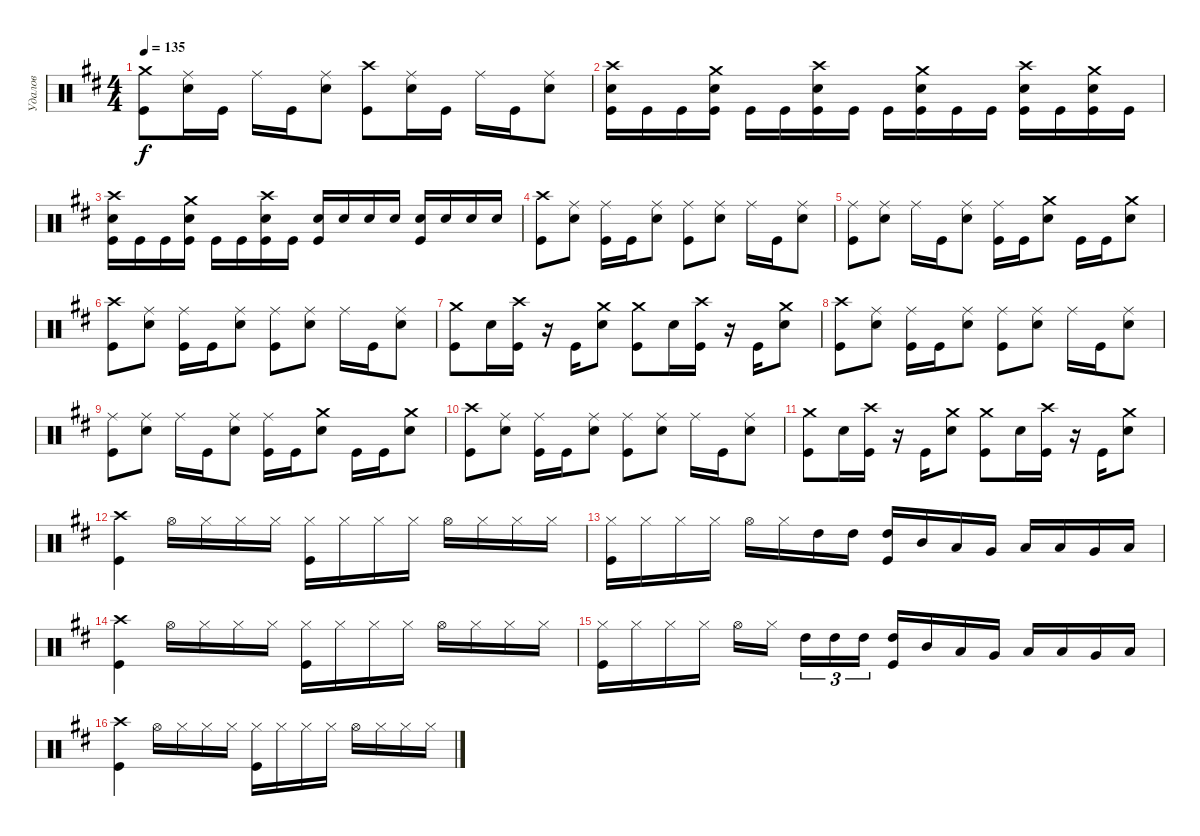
\track ("Удалов" "Удалов") {instrument percussion}
\staff {score}
\articulation defaults
\ts (4 4)
\tempo 135
\clef neutral
\ks d
("Crash medium (hit)" "Kick (hit)").8{dy f} ("Ride (middle)" "Electric Snare (hit)").16 "Kick (hit)".16 "Ride (middle)".16 "Kick (hit)".16 ("Electric Snare (hit)" "Ride (middle)").8 ("Crash high (hit)" "Kick (hit)").8 ("Ride (middle)" "Electric Snare (hit)").16 "Kick (hit)".16 "Ride (middle)".16 "Kick (hit)".16 ("Electric Snare (hit)" "Ride (middle)").8 |
("Kick (hit)" "Electric Snare (hit)" "Crash high (hit)").16 "Kick (hit)".16 "Kick (hit)".16 ("Kick (hit)" "Electric Snare (hit)" "Crash medium (hit)").16 "Kick (hit)".16 "Kick (hit)".16 ("Kick (hit)" "Electric Snare (hit)" "Crash high (hit)").16 "Kick (hit)".16 "Kick (hit)".16 ("Kick (hit)" "Electric Snare (hit)" "Crash medium (hit)").16 "Kick (hit)".16 "Kick (hit)".16 ("Kick (hit)" "Electric Snare (hit)" "Crash high (hit)").16 "Kick (hit)".16 ("Kick (hit)" "Electric Snare (hit)" "Crash medium (hit)").16 "Kick (hit)".16 |
("Kick (hit)" "Electric Snare (hit)" "Crash high (hit)").16 "Kick (hit)".16 "Kick (hit)".16 ("Kick (hit)" "Electric Snare (hit)" "Crash medium (hit)").16 "Kick (hit)".16 "Kick (hit)".16 ("Kick (hit)" "Crash high (hit)" "Electric Snare (hit)").16 "Kick (hit)".16 ("Kick (hit)" "Electric Snare (hit)").16 "Electric Snare (hit)".16 "Electric Snare (hit)".16 "Electric Snare (hit)".16 ("Kick (hit)" "Electric Snare (hit)").16 "Electric Snare (hit)".16 "Electric Snare (hit)".16 "Electric Snare (hit)".16 |
("Kick (hit)" "Crash high (hit)").8 ("Electric Snare (hit)" "Ride (middle)").8 ("Kick (hit)" "Ride (middle)").16 "Kick (hit)".16 ("Electric Snare (hit)" "Ride (middle)").8 ("Kick (hit)" "Ride (middle)").8 ("Electric Snare (hit)" "Ride (middle)").8 "Ride (middle)".16 "Kick (hit)".16 ("Electric Snare (hit)" "Ride (middle)").8 |
("Kick (hit)" "Ride (middle)").8 ("Electric Snare (hit)" "Ride (middle)").8 "Ride (middle)".16 "Kick (hit)".16 ("Electric Snare (hit)" "Ride (middle)").8 ("Kick (hit)" "Ride (middle)").16 "Kick (hit)".16 ("Electric Snare (hit)" "Crash medium (hit)").8 "Kick (hit)".16 "Kick (hit)".16 ("Electric Snare (hit)" "Crash medium (hit)").8 |
("Kick (hit)" "Crash high (hit)").8 ("Electric Snare (hit)" "Ride (middle)").8 ("Kick (hit)" "Ride (middle)").16 "Kick (hit)".16 ("Electric Snare (hit)" "Ride (middle)").8 ("Kick (hit)" "Ride (middle)").8 ("Electric Snare (hit)" "Ride (middle)").8 "Ride (middle)".16 "Kick (hit)".16 ("Electric Snare (hit)" "Ride (middle)").8 |
("Kick (hit)" "Crash medium (hit)").8 "Electric Snare (hit)".16 ("Kick (hit)" "Crash high (hit)").16 r.16 "Kick (hit)".16 ("Electric Snare (hit)" "Crash medium (hit)").8 ("Kick (hit)" "Crash medium (hit)").8 "Electric Snare (hit)".16 ("Kick (hit)" "Crash high (hit)").16 r.16 "Kick (hit)".16 ("Electric Snare (hit)" "Crash medium (hit)").8 |
("Kick (hit)" "Crash high (hit)").8 ("Electric Snare (hit)" "Ride (middle)").8 ("Kick (hit)" "Ride (middle)").16 "Kick (hit)".16 ("Electric Snare (hit)" "Ride (middle)").8 ("Kick (hit)" "Ride (middle)").8 ("Electric Snare (hit)" "Ride (middle)").8 "Ride (middle)".16 "Kick (hit)".16 ("Electric Snare (hit)" "Ride (middle)").8 |
("Kick (hit)" "Ride (middle)").8 ("Electric Snare (hit)" "Ride (middle)").8 "Ride (middle)".16 "Kick (hit)".16 ("Electric Snare (hit)" "Ride (middle)").8 ("Kick (hit)" "Ride (middle)").16 "Kick (hit)".16 ("Electric Snare (hit)" "Crash medium (hit)").8 "Kick (hit)".16 "Kick (hit)".16 ("Electric Snare (hit)" "Crash medium (hit)").8 |
("Kick (hit)" "Crash high (hit)").8 ("Electric Snare (hit)" "Ride (middle)").8 ("Kick (hit)" "Ride (middle)").16 "Kick (hit)".16 ("Electric Snare (hit)" "Ride (middle)").8 ("Kick (hit)" "Ride (middle)").8 ("Electric Snare (hit)" "Ride (middle)").8 "Ride (middle)".16 "Kick (hit)".16 ("Electric Snare (hit)" "Ride (middle)").8 |
("Kick (hit)" "Crash medium (hit)").8 "Electric Snare (hit)".16 ("Kick (hit)" "Crash high (hit)").16 r.16 "Kick (hit)".16 ("Electric Snare (hit)" "Crash medium (hit)").8 ("Kick (hit)" "Crash medium (hit)").8 "Electric Snare (hit)".16 ("Kick (hit)" "Crash high (hit)").16 r.16 "Kick (hit)".16 ("Electric Snare (hit)" "Crash medium (hit)").8 |
("Kick (hit)" "Crash high (hit)").4 "Hi-Hat (open)".16 "Hi-Hat (closed)".16 "Hi-Hat (closed)".16 "Hi-Hat (closed)".16 ("Kick (hit)" "Hi-Hat (closed)").16 "Hi-Hat (closed)".16 "Hi-Hat (closed)".16 "Hi-Hat (closed)".16 "Hi-Hat (open)".16 "Hi-Hat (closed)".16 "Hi-Hat (closed)".16 "Hi-Hat (closed)".16 |
("Kick (hit)" "Hi-Hat (closed)").16 "Hi-Hat (closed)".16 "Hi-Hat (closed)".16 "Hi-Hat (closed)".16 "Hi-Hat (open)".16 "Hi-Hat (closed)".16 "High Tom (hit)".16 "High Tom (hit)".16 ("High Tom (hit)" "Kick (hit)").16 "Mid Tom (hit)".16 "Low Tom (hit)".16 "Very Low Tom (hit)".16 "Low Tom (hit)".16 "Low Tom (hit)".16 "Very Low Tom (hit)".16 "Low Floor Tom (hit)".16 |
("Kick (hit)" "Crash high (hit)").4 "Hi-Hat (open)".16 "Hi-Hat (closed)".16 "Hi-Hat (closed)".16 "Hi-Hat (closed)".16 ("Hi-Hat (closed)" "Kick (hit)").16 "Hi-Hat (closed)".16 "Hi-Hat (closed)".16 "Hi-Hat (closed)".16 "Hi-Hat (open)".16 "Hi-Hat (closed)".16 "Hi-Hat (closed)".16 "Hi-Hat (closed)".16 |
("Hi-Hat (closed)" "Kick (hit)").16 "Hi-Hat (closed)".16 "Hi-Hat (closed)".16 "Hi-Hat (closed)".16 "Hi-Hat (open)".16 "Hi-Hat (closed)".16{beam splitsecondary} "High Tom (hit)".16{tu (3 2)} "High Tom (hit)".16{tu (3 2)} "High Tom (hit)".16{tu (3 2)} ("High Tom (hit)" "Kick (hit)").16 "Mid Tom (hit)".16 "Low Tom (hit)".16 "Very Low Tom (hit)".16 "Low Tom (hit)".16 "Low Tom (hit)".16 "Very Low Tom (hit)".16 "Low Floor Tom (hit)".16 |
("Kick (hit)" "Crash high (hit)").4 "Hi-Hat (open)".16 "Hi-Hat (closed)".16 "Hi-Hat (closed)".16 "Hi-Hat (closed)".16 ("Kick (hit)" "Hi-Hat (closed)").16 "Hi-Hat (closed)".16 "Hi-Hat (closed)".16 "Hi-Hat (closed)".16 "Hi-Hat (open)".16 "Hi-Hat (closed)".16 "Hi-Hat (closed)".16 "Hi-Hat (closed)".16
